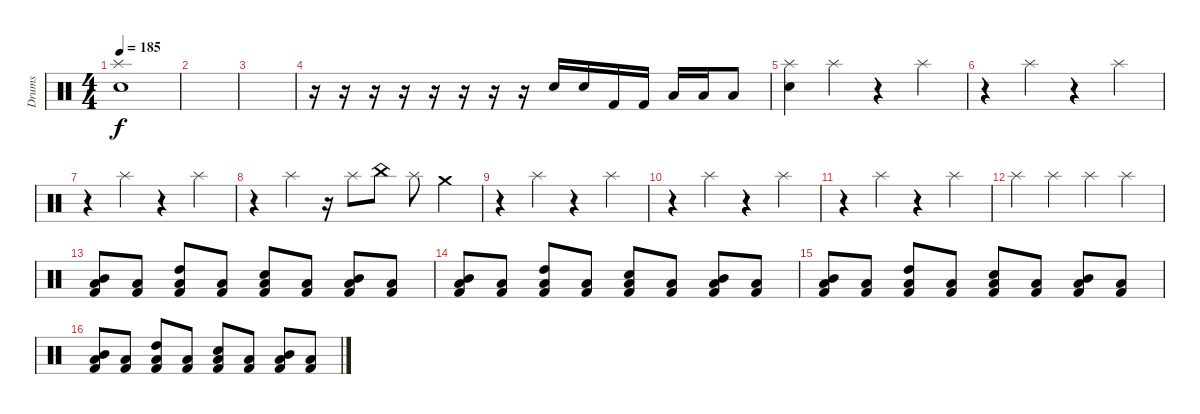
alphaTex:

\track ("Drums" "Drums") {instrument percussion}
\staff {score}
\articulation defaults
\ts (4 4)
\tempo 185
\clef neutral
\ks c
("Splash (hit)" "Snare (hit) 2").1{dy f} |
|
|
r.16 r.16 r.16 r.16 r.16 r.16 r.16 r.16 "Snare (hit) 2".16 "Snare (hit) 2".16 "Kick (hit) 2".16 "Kick (hit) 2".16 "Low Tom (hit)".16 "Low Tom (hit)".16 "Low Tom (hit)".8 |
("Splash (hit)" "Snare (hit) 2").4 "Splash (hit)".4 r.4 "Splash (hit)".4 |
r.4 "Splash (hit)".4 r.4 "Splash (hit)".4 |
r.4 "Splash (hit)".4 r.4 "Splash (hit)".4 |
r.4 "Splash (hit)".4 r.16 "Splash (hit)".8 "China (hit)".8 "Splash (hit)".8 "Crash medium (hit)".4 |
r.4 "Splash (hit)".4 r.4 "Splash (hit)".4 |
r.4 "Splash (hit)".4 r.4 "Splash (hit)".4 |
r.4 "Splash (hit)".4 r.4 "Splash (hit)".4 |
"Splash (hit)".4 "Splash (hit)".4 "Splash (hit)".4 "Splash (hit)".4 |
("Low Tom (hit)" "Mid Tom (hit)" "Kick (hit) 2").8 ("Low Tom (hit)" "Kick (hit) 2").8 ("Low Tom (hit)" "High Tom (hit)" "Kick (hit) 2").8 ("Low Tom (hit)" "Kick (hit) 2").8 ("Low Tom (hit)" "Snare (hit) 2" "Kick (hit) 2").8 ("Low Tom (hit)" "Kick (hit) 2").8 ("Low Tom (hit)" "Mid Tom (hit)" "Kick (hit) 2").8 ("Low Tom (hit)" "Kick (hit) 2").8 |
("Low Tom (hit)" "Mid Tom (hit)" "Kick (hit) 2").8 ("Low Tom (hit)" "Kick (hit) 2").8 ("Low Tom (hit)" "High Tom (hit)" "Kick (hit) 2").8 ("Low Tom (hit)" "Kick (hit) 2").8 ("Low Tom (hit)" "Snare (hit) 2" "Kick (hit) 2").8 ("Low Tom (hit)" "Kick (hit) 2").8 ("Low Tom (hit)" "Mid Tom (hit)" "Kick (hit) 2").8 ("Low Tom (hit)" "Kick (hit) 2").8 |
("Low Tom (hit)" "Mid Tom (hit)" "Kick (hit) 2").8 ("Low Tom (hit)" "Kick (hit) 2").8 ("Low Tom (hit)" "High Tom (hit)" "Kick (hit) 2").8 ("Low Tom (hit)" "Kick (hit) 2").8 ("Low Tom (hit)" "Snare (hit) 2" "Kick (hit) 2").8 ("Low Tom (hit)" "Kick (hit) 2").8 ("Low Tom (hit)" "Mid Tom (hit)" "Kick (hit) 2").8 ("Low Tom (hit)" "Kick (hit) 2").8 |
("Low Tom (hit)" "Mid Tom (hit)" "Kick (hit) 2").8 ("Low Tom (hit)" "Kick (hit) 2").8 ("Low Tom (hit)" "High Tom (hit)" "Kick (hit) 2").8 ("Low Tom (hit)" "Kick (hit) 2").8 ("Low Tom (hit)" "Snare (hit) 2" "Kick (hit) 2").8 ("Low Tom (hit)" "Kick (hit) 2").8 ("Low Tom (hit)" "Mid Tom (hit)" "Kick (hit) 2").8 ("Low Tom (hit)" "Kick (hit) 2").8
